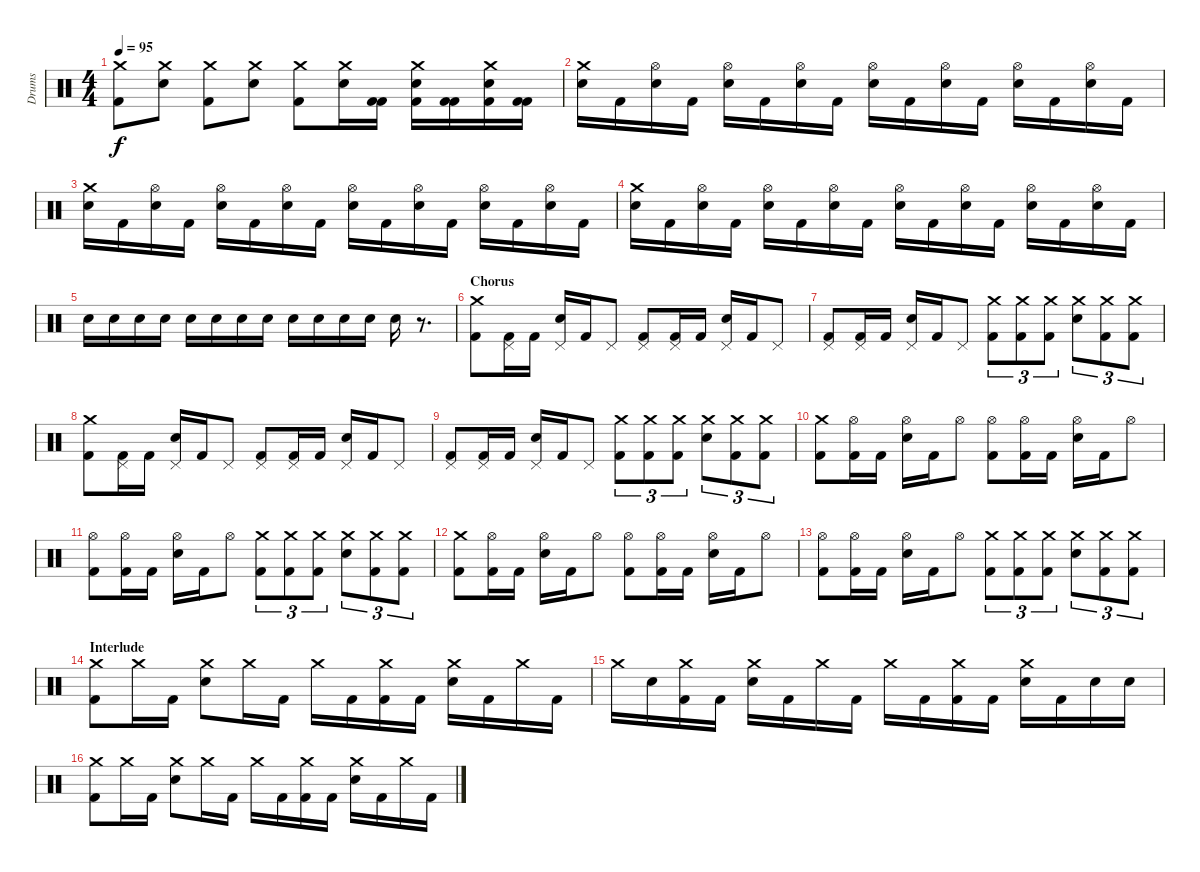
\track ("Drums" "Drums") {instrument percussion}
\staff {score}
\articulation defaults
\ts (4 4)
\tempo 95
\clef neutral
\ks c
("Crash medium (hit)" "Kick (hit) 2").8{dy f} ("Crash medium (hit)" "Electric Snare (hit)").8 ("Crash medium (hit)" "Kick (hit) 2").8 ("Crash medium (hit)" "Electric Snare (hit)").8 ("Crash medium (hit)" "Kick (hit) 2").8 ("Crash medium (hit)" "Electric Snare (hit)").16 ("Kick (hit) 2" "Kick (hit) 2").16 ("Crash medium (hit)" "Electric Snare (hit)" "Kick (hit) 2").16 ("Kick (hit) 2" "Kick (hit) 2").16 ("Crash medium (hit)" "Electric Snare (hit)" "Kick (hit) 2").16 ("Kick (hit) 2" "Kick (hit) 2").16 |
("Crash medium (hit)" "Electric Snare (hit)").16 "Kick (hit) 2".16 ("Hi-Hat (open)" "Electric Snare (hit)").16 "Kick (hit) 2".16 ("Hi-Hat (open)" "Electric Snare (hit)").16 "Kick (hit) 2".16 ("Hi-Hat (open)" "Electric Snare (hit)").16 "Kick (hit) 2".16 ("Hi-Hat (open)" "Electric Snare (hit)").16 "Kick (hit) 2".16 ("Hi-Hat (open)" "Electric Snare (hit)").16 "Kick (hit) 2".16 ("Hi-Hat (open)" "Electric Snare (hit)").16 "Kick (hit) 2".16 ("Hi-Hat (open)" "Electric Snare (hit)").16 "Kick (hit) 2".16 |
("Crash medium (hit)" "Electric Snare (hit)").16 "Kick (hit) 2".16 ("Hi-Hat (open)" "Electric Snare (hit)").16 "Kick (hit) 2".16 ("Hi-Hat (open)" "Electric Snare (hit)").16 "Kick (hit) 2".16 ("Hi-Hat (open)" "Electric Snare (hit)").16 "Kick (hit) 2".16 ("Hi-Hat (open)" "Electric Snare (hit)").16 "Kick (hit) 2".16 ("Hi-Hat (open)" "Electric Snare (hit)").16 "Kick (hit) 2".16 ("Hi-Hat (open)" "Electric Snare (hit)").16 "Kick (hit) 2".16 ("Hi-Hat (open)" "Electric Snare (hit)").16 "Kick (hit) 2".16 |
("Crash medium (hit)" "Electric Snare (hit)").16 "Kick (hit) 2".16 ("Hi-Hat (open)" "Electric Snare (hit)").16 "Kick (hit) 2".16 ("Hi-Hat (open)" "Electric Snare (hit)").16 "Kick (hit) 2".16 ("Hi-Hat (open)" "Electric Snare (hit)").16 "Kick (hit) 2".16 ("Hi-Hat (open)" "Electric Snare (hit)").16 "Kick (hit) 2".16 ("Hi-Hat (open)" "Electric Snare (hit)").16 "Kick (hit) 2".16 ("Hi-Hat (open)" "Electric Snare (hit)").16 "Kick (hit) 2".16 ("Hi-Hat (open)" "Electric Snare (hit)").16 "Kick (hit) 2".16 |
"Electric Snare (hit)".16 "Electric Snare (hit)".16 "Electric Snare (hit)".16 "Electric Snare (hit)".16 "Electric Snare (hit)".16 "Electric Snare (hit)".16 "Electric Snare (hit)".16 "Electric Snare (hit)".16 "Electric Snare (hit)".16 "Electric Snare (hit)".16 "Electric Snare (hit)".16 "Electric Snare (hit)".16 "Electric Snare (hit)".16 r.8{d} |
\section ("" "Chorus")
("Crash medium (hit)" "Kick (hit) 2").8 ("Pedal Hi-Hat (hit)" "Kick (hit) 2").16 "Kick (hit) 2".16 ("Pedal Hi-Hat (hit)" "Electric Snare (hit)").16 "Kick (hit) 2".16 "Pedal Hi-Hat (hit)".8 ("Pedal Hi-Hat (hit)" "Kick (hit) 2").8 ("Pedal Hi-Hat (hit)" "Kick (hit) 2").16 "Kick (hit) 2".16 ("Pedal Hi-Hat (hit)" "Electric Snare (hit)").16 "Kick (hit) 2".16 "Pedal Hi-Hat (hit)".8 |
("Pedal Hi-Hat (hit)" "Kick (hit) 2").8 ("Pedal Hi-Hat (hit)" "Kick (hit) 2").16 "Kick (hit) 2".16 ("Pedal Hi-Hat (hit)" "Electric Snare (hit)").16 "Kick (hit) 2".16 "Pedal Hi-Hat (hit)".8 ("Crash medium (hit)" "Kick (hit) 2").8{tu (3 2)} ("Crash medium (hit)" "Kick (hit) 2").8{tu (3 2)} ("Crash medium (hit)" "Kick (hit) 2").8{tu (3 2)} ("Crash medium (hit)" "Electric Snare (hit)").8{tu (3 2)} ("Crash medium (hit)" "Kick (hit) 2").8{tu (3 2)} ("Crash medium (hit)" "Kick (hit) 2").8{tu (3 2)} |
("Crash medium (hit)" "Kick (hit) 2").8 ("Pedal Hi-Hat (hit)" "Kick (hit) 2").16 "Kick (hit) 2".16 ("Pedal Hi-Hat (hit)" "Electric Snare (hit)").16 "Kick (hit) 2".16 "Pedal Hi-Hat (hit)".8 ("Pedal Hi-Hat (hit)" "Kick (hit) 2").8 ("Pedal Hi-Hat (hit)" "Kick (hit) 2").16 "Kick (hit) 2".16 ("Pedal Hi-Hat (hit)" "Electric Snare (hit)").16 "Kick (hit) 2".16 "Pedal Hi-Hat (hit)".8 |
("Pedal Hi-Hat (hit)" "Kick (hit) 2").8 ("Pedal Hi-Hat (hit)" "Kick (hit) 2").16 "Kick (hit) 2".16 ("Pedal Hi-Hat (hit)" "Electric Snare (hit)").16 "Kick (hit) 2".16 "Pedal Hi-Hat (hit)".8 ("Crash medium (hit)" "Kick (hit) 2").8{tu (3 2)} ("Crash medium (hit)" "Kick (hit) 2").8{tu (3 2)} ("Crash medium (hit)" "Kick (hit) 2").8{tu (3 2)} ("Crash medium (hit)" "Electric Snare (hit)").8{tu (3 2)} ("Crash medium (hit)" "Kick (hit) 2").8{tu (3 2)} ("Crash medium (hit)" "Kick (hit) 2").8{tu (3 2)} |
("Crash medium (hit)" "Kick (hit) 2").8 ("Hi-Hat (open)" "Kick (hit) 2").16 "Kick (hit) 2".16 ("Hi-Hat (open)" "Electric Snare (hit)").16 "Kick (hit) 2".16 "Hi-Hat (open)".8 ("Hi-Hat (open)" "Kick (hit) 2").8 ("Hi-Hat (open)" "Kick (hit) 2").16 "Kick (hit) 2".16 ("Hi-Hat (open)" "Electric Snare (hit)").16 "Kick (hit) 2".16 "Hi-Hat (open)".8 |
("Hi-Hat (open)" "Kick (hit) 2").8 ("Hi-Hat (open)" "Kick (hit) 2").16 "Kick (hit) 2".16 ("Hi-Hat (open)" "Electric Snare (hit)").16 "Kick (hit) 2".16 "Hi-Hat (open)".8 ("Crash medium (hit)" "Kick (hit) 2").8{tu (3 2)} ("Crash medium (hit)" "Kick (hit) 2").8{tu (3 2)} ("Crash medium (hit)" "Kick (hit) 2").8{tu (3 2)} ("Crash medium (hit)" "Electric Snare (hit)").8{tu (3 2)} ("Crash medium (hit)" "Kick (hit) 2").8{tu (3 2)} ("Crash medium (hit)" "Kick (hit) 2").8{tu (3 2)} |
("Crash medium (hit)" "Kick (hit) 2").8 ("Hi-Hat (open)" "Kick (hit) 2").16 "Kick (hit) 2".16 ("Hi-Hat (open)" "Electric Snare (hit)").16 "Kick (hit) 2".16 "Hi-Hat (open)".8 ("Hi-Hat (open)" "Kick (hit) 2").8 ("Hi-Hat (open)" "Kick (hit) 2").16 "Kick (hit) 2".16 ("Hi-Hat (open)" "Electric Snare (hit)").16 "Kick (hit) 2".16 "Hi-Hat (open)".8 |
("Hi-Hat (open)" "Kick (hit) 2").8 ("Hi-Hat (open)" "Kick (hit) 2").16 "Kick (hit) 2".16 ("Hi-Hat (open)" "Electric Snare (hit)").16 "Kick (hit) 2".16 "Hi-Hat (open)".8 ("Crash medium (hit)" "Kick (hit) 2").8{tu (3 2)} ("Crash medium (hit)" "Kick (hit) 2").8{tu (3 2)} ("Crash medium (hit)" "Kick (hit) 2").8{tu (3 2)} ("Crash medium (hit)" "Electric Snare (hit)").8{tu (3 2)} ("Crash medium (hit)" "Kick (hit) 2").8{tu (3 2)} ("Crash medium (hit)" "Kick (hit) 2").8{tu (3 2)} |
\section ("" "Interlude")
("Crash medium (hit)" "Kick (hit) 2").8 "Crash medium (hit)".16 "Kick (hit) 2".16 ("Crash medium (hit)" "Electric Snare (hit)").8 "Crash medium (hit)".16 "Kick (hit) 2".16 "Crash medium (hit)".16 "Kick (hit) 2".16 ("Crash medium (hit)" "Kick (hit) 2").16 "Kick (hit) 2".16 ("Crash medium (hit)" "Electric Snare (hit)").16 "Kick (hit) 2".16 "Crash medium (hit)".16 "Kick (hit) 2".16 |
"Crash medium (hit)".16 "Electric Snare (hit)".16 ("Crash medium (hit)" "Kick (hit) 2").16 "Kick (hit) 2".16 ("Crash medium (hit)" "Electric Snare (hit)").16 "Kick (hit) 2".16 "Crash medium (hit)".16 "Kick (hit) 2".16 "Crash medium (hit)".16 "Kick (hit) 2".16 ("Crash medium (hit)" "Kick (hit) 2").16 "Kick (hit) 2".16 ("Crash medium (hit)" "Electric Snare (hit)").16 "Kick (hit) 2".16 "Electric Snare (hit)".16 "Electric Snare (hit)".16 |
("Crash medium (hit)" "Kick (hit) 2").8 "Crash medium (hit)".16 "Kick (hit) 2".16 ("Crash medium (hit)" "Electric Snare (hit)").8 "Crash medium (hit)".16 "Kick (hit) 2".16 "Crash medium (hit)".16 "Kick (hit) 2".16 ("Crash medium (hit)" "Kick (hit) 2").16 "Kick (hit) 2".16 ("Crash medium (hit)" "Electric Snare (hit)").16 "Kick (hit) 2".16 "Crash medium (hit)".16 "Kick (hit) 2".16
